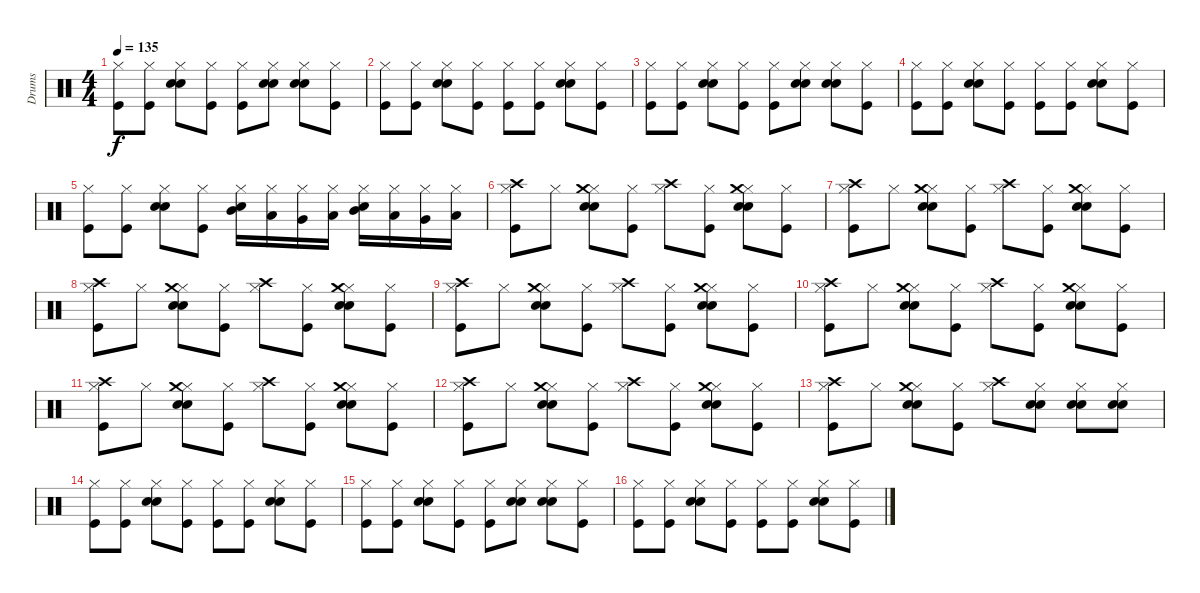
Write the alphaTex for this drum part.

\track ("Drums" "Drums") {instrument percussion}
\staff {score}
\articulation defaults
\ts (4 4)
\tempo 135
\clef neutral
\ks c
("Hi-Hat (closed)" "Kick (hit)").8{dy f} ("Hi-Hat (closed)" "Kick (hit)").8 ("Hi-Hat (closed)" "Hand Clap (hit)" "Electric Snare (hit)").8 ("Hi-Hat (closed)" "Kick (hit)").8 ("Hi-Hat (closed)" "Kick (hit)").8 ("Hi-Hat (closed)" "Hand Clap (hit)" "Snare (hit) 2").8 ("Hi-Hat (closed)" "Hand Clap (hit)" "Snare (hit) 2").8 ("Hi-Hat (closed)" "Kick (hit)").8 |
("Hi-Hat (closed)" "Kick (hit)").8 ("Hi-Hat (closed)" "Kick (hit)").8 ("Hi-Hat (closed)" "Hand Clap (hit)" "Electric Snare (hit)").8 ("Hi-Hat (closed)" "Kick (hit)").8 ("Hi-Hat (closed)" "Kick (hit)").8 ("Hi-Hat (closed)" "Kick (hit)").8 ("Hi-Hat (closed)" "Hand Clap (hit)" "Electric Snare (hit)").8 ("Hi-Hat (closed)" "Kick (hit)").8 |
("Hi-Hat (closed)" "Kick (hit)").8 ("Hi-Hat (closed)" "Kick (hit)").8 ("Hi-Hat (closed)" "Hand Clap (hit)" "Electric Snare (hit)").8 ("Hi-Hat (closed)" "Kick (hit)").8 ("Hi-Hat (closed)" "Kick (hit)").8 ("Hi-Hat (closed)" "Hand Clap (hit)" "Snare (hit) 2").8 ("Hi-Hat (closed)" "Hand Clap (hit)" "Snare (hit) 2").8 ("Hi-Hat (closed)" "Kick (hit)").8 |
("Hi-Hat (closed)" "Kick (hit)").8 ("Hi-Hat (closed)" "Kick (hit)").8 ("Hi-Hat (closed)" "Hand Clap (hit)" "Electric Snare (hit)").8 ("Hi-Hat (closed)" "Kick (hit)").8 ("Hi-Hat (closed)" "Kick (hit)").8 ("Hi-Hat (closed)" "Kick (hit)").8 ("Hi-Hat (closed)" "Hand Clap (hit)" "Electric Snare (hit)").8 ("Hi-Hat (closed)" "Kick (hit)").8 |
("Hi-Hat (closed)" "Kick (hit)").8 ("Hi-Hat (closed)" "Kick (hit)").8 ("Hi-Hat (closed)" "Hand Clap (hit)" "Electric Snare (hit)").8 ("Hi-Hat (closed)" "Kick (hit)").8 ("Hi-Hat (closed)" "Mid Tom (hit)" "Snare (hit) 2").16 ("Hi-Hat (closed)" "Low Tom (hit)").16 ("Hi-Hat (closed)" "Very Low Tom (hit)").16 ("Hi-Hat (closed)" "Low Floor Tom (hit)").16 ("Hi-Hat (closed)" "Mid Tom (hit)" "Snare (hit) 2").16 ("Hi-Hat (closed)" "Low Tom (hit)").16 ("Hi-Hat (closed)" "Very Low Tom (hit)").16 ("Hi-Hat (closed)" "Low Floor Tom (hit)").16 |
("Hi-Hat (closed)" "Crash high (hit)" "Kick (hit)").8 "Hi-Hat (closed)".8 ("Hi-Hat (closed)" "Crash medium (hit)" "Hand Clap (hit)" "Snare (hit) 2").8 ("Hi-Hat (closed)" "Kick (hit)").8 ("Hi-Hat (closed)" "Crash high (hit)").8 ("Hi-Hat (closed)" "Kick (hit)").8 ("Hi-Hat (closed)" "Crash medium (hit)" "Hand Clap (hit)" "Snare (hit) 2").8 ("Hi-Hat (closed)" "Kick (hit)").8 |
("Hi-Hat (closed)" "Crash high (hit)" "Kick (hit)").8 "Hi-Hat (closed)".8 ("Hi-Hat (closed)" "Crash medium (hit)" "Hand Clap (hit)" "Snare (hit) 2").8 ("Hi-Hat (closed)" "Kick (hit)").8 ("Hi-Hat (closed)" "Crash high (hit)").8 ("Hi-Hat (closed)" "Kick (hit)").8 ("Hi-Hat (closed)" "Crash medium (hit)" "Hand Clap (hit)" "Snare (hit) 2").8 ("Hi-Hat (closed)" "Kick (hit)").8 |
("Hi-Hat (closed)" "Crash high (hit)" "Kick (hit)").8 "Hi-Hat (closed)".8 ("Hi-Hat (closed)" "Crash medium (hit)" "Hand Clap (hit)" "Snare (hit) 2").8 ("Hi-Hat (closed)" "Kick (hit)").8 ("Hi-Hat (closed)" "Crash high (hit)").8 ("Hi-Hat (closed)" "Kick (hit)").8 ("Hi-Hat (closed)" "Crash medium (hit)" "Hand Clap (hit)" "Snare (hit) 2").8 ("Hi-Hat (closed)" "Kick (hit)").8 |
("Hi-Hat (closed)" "Crash high (hit)" "Kick (hit)").8 "Hi-Hat (closed)".8 ("Hi-Hat (closed)" "Crash medium (hit)" "Hand Clap (hit)" "Snare (hit) 2").8 ("Hi-Hat (closed)" "Kick (hit)").8 ("Hi-Hat (closed)" "Crash high (hit)").8 ("Hi-Hat (closed)" "Kick (hit)").8 ("Hi-Hat (closed)" "Crash medium (hit)" "Hand Clap (hit)" "Snare (hit) 2").8 ("Hi-Hat (closed)" "Kick (hit)").8 |
("Hi-Hat (closed)" "Crash high (hit)" "Kick (hit)").8 "Hi-Hat (closed)".8 ("Hi-Hat (closed)" "Crash medium (hit)" "Hand Clap (hit)" "Snare (hit) 2").8 ("Hi-Hat (closed)" "Kick (hit)").8 ("Hi-Hat (closed)" "Crash high (hit)").8 ("Hi-Hat (closed)" "Kick (hit)").8 ("Hi-Hat (closed)" "Crash medium (hit)" "Hand Clap (hit)" "Snare (hit) 2").8 ("Hi-Hat (closed)" "Kick (hit)").8 |
("Hi-Hat (closed)" "Crash high (hit)" "Kick (hit)").8 "Hi-Hat (closed)".8 ("Hi-Hat (closed)" "Crash medium (hit)" "Hand Clap (hit)" "Snare (hit) 2").8 ("Hi-Hat (closed)" "Kick (hit)").8 ("Hi-Hat (closed)" "Crash high (hit)").8 ("Hi-Hat (closed)" "Kick (hit)").8 ("Hi-Hat (closed)" "Crash medium (hit)" "Hand Clap (hit)" "Snare (hit) 2").8 ("Hi-Hat (closed)" "Kick (hit)").8 |
("Hi-Hat (closed)" "Crash high (hit)" "Kick (hit)").8 "Hi-Hat (closed)".8 ("Hi-Hat (closed)" "Crash medium (hit)" "Hand Clap (hit)" "Snare (hit) 2").8 ("Hi-Hat (closed)" "Kick (hit)").8 ("Hi-Hat (closed)" "Crash high (hit)").8 ("Hi-Hat (closed)" "Kick (hit)").8 ("Hi-Hat (closed)" "Crash medium (hit)" "Hand Clap (hit)" "Snare (hit) 2").8 ("Hi-Hat (closed)" "Kick (hit)").8 |
("Hi-Hat (closed)" "Crash high (hit)" "Kick (hit)").8 "Hi-Hat (closed)".8 ("Hi-Hat (closed)" "Crash medium (hit)" "Hand Clap (hit)" "Snare (hit) 2").8 ("Hi-Hat (closed)" "Kick (hit)").8 ("Hi-Hat (closed)" "Crash high (hit)").8 ("Hi-Hat (closed)" "Hand Clap (hit)" "Snare (hit) 2").8 ("Hi-Hat (closed)" "Hand Clap (hit)" "Snare (hit) 2").8 ("Hi-Hat (closed)" "Hand Clap (hit)" "Snare (hit) 2").8 |
("Hi-Hat (closed)" "Kick (hit)").8 ("Hi-Hat (closed)" "Kick (hit)").8 ("Hi-Hat (closed)" "Hand Clap (hit)" "Electric Snare (hit)").8 ("Hi-Hat (closed)" "Kick (hit)").8 ("Hi-Hat (closed)" "Kick (hit)").8 ("Hi-Hat (closed)" "Kick (hit)").8 ("Hi-Hat (closed)" "Hand Clap (hit)" "Electric Snare (hit)").8 ("Hi-Hat (closed)" "Kick (hit)").8 |
("Hi-Hat (closed)" "Kick (hit)").8 ("Hi-Hat (closed)" "Kick (hit)").8 ("Hi-Hat (closed)" "Hand Clap (hit)" "Electric Snare (hit)").8 ("Hi-Hat (closed)" "Kick (hit)").8 ("Hi-Hat (closed)" "Kick (hit)").8 ("Hi-Hat (closed)" "Hand Clap (hit)" "Snare (hit) 2").8 ("Hi-Hat (closed)" "Hand Clap (hit)" "Snare (hit) 2").8 ("Hi-Hat (closed)" "Kick (hit)").8 |
("Hi-Hat (closed)" "Kick (hit)").8 ("Hi-Hat (closed)" "Kick (hit)").8 ("Hi-Hat (closed)" "Hand Clap (hit)" "Electric Snare (hit)").8 ("Hi-Hat (closed)" "Kick (hit)").8 ("Hi-Hat (closed)" "Kick (hit)").8 ("Hi-Hat (closed)" "Kick (hit)").8 ("Hi-Hat (closed)" "Hand Clap (hit)" "Electric Snare (hit)").8 ("Hi-Hat (closed)" "Kick (hit)").8
